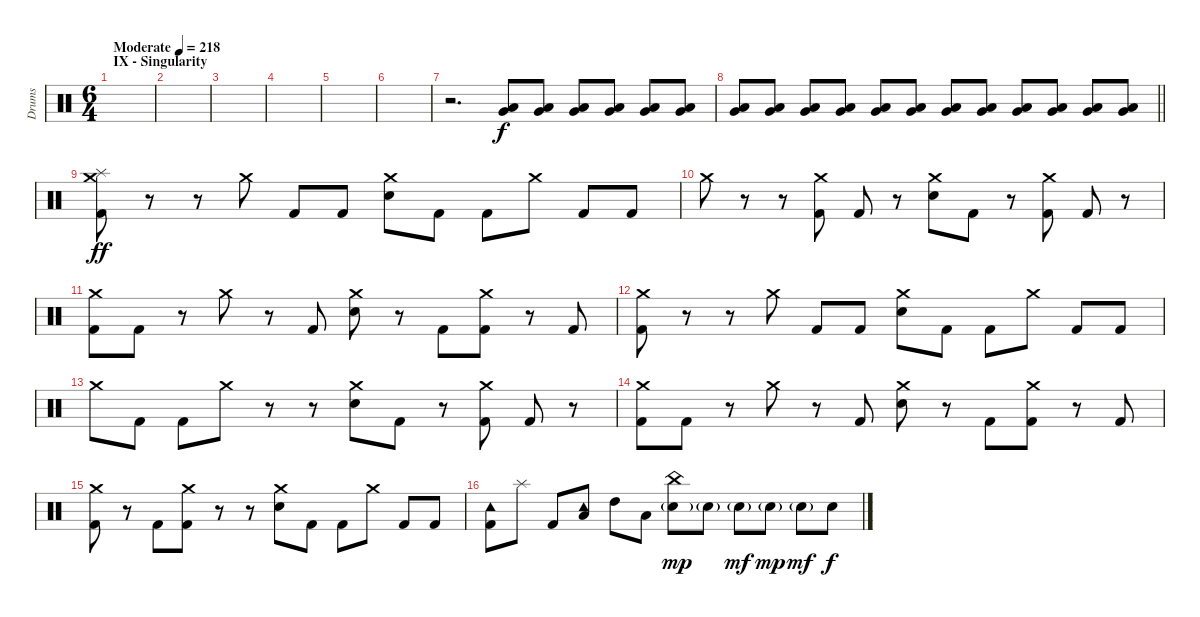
\track ("Drums" "Drums") {instrument percussion}
\staff {score}
\articulation defaults
\ts (6 4)
\section ("" "IX - Singularity")
\tempo (218 "Moderate")
\clef neutral
\ks c
|
|
|
|
|
|
r.2{d} ("Very Low Tom (hit)" "Low Floor Tom (hit)").8{volume 0} ("Very Low Tom (hit)" "Low Floor Tom (hit)").8 ("Very Low Tom (hit)" "Low Floor Tom (hit)").8{volume 11} ("Very Low Tom (hit)" "Low Floor Tom (hit)").8 ("Very Low Tom (hit)" "Low Floor Tom (hit)").8 ("Very Low Tom (hit)" "Low Floor Tom (hit)").8 |
\barLineRight lightlight
("Very Low Tom (hit)" "Low Floor Tom (hit)").8 ("Very Low Tom (hit)" "Low Floor Tom (hit)").8 ("Very Low Tom (hit)" "Low Floor Tom (hit)").8 ("Very Low Tom (hit)" "Low Floor Tom (hit)").8 ("Very Low Tom (hit)" "Low Floor Tom (hit)").8{volume 16} ("Very Low Tom (hit)" "Low Floor Tom (hit)").8 ("Very Low Tom (hit)" "Low Floor Tom (hit)").8 ("Very Low Tom (hit)" "Low Floor Tom (hit)").8 ("Very Low Tom (hit)" "Low Floor Tom (hit)").8 ("Very Low Tom (hit)" "Low Floor Tom (hit)").8 ("Very Low Tom (hit)" "Low Floor Tom (hit)").8 ("Very Low Tom (hit)" "Low Floor Tom (hit)").8 |
\section ("" "")
("Crash medium (hit)" "Splash (hit)" "Kick (hit) 2").8{dy ff} r.8 r.8 "Crash medium (hit)".8 "Kick (hit) 2".8 "Kick (hit) 2".8 ("Crash medium (hit)" "Electric Snare (hit)").8 "Kick (hit) 2".8 "Kick (hit) 2".8 "Crash medium (hit)".8 "Kick (hit) 2".8 "Kick (hit) 2".8 |
"Crash medium (hit)".8 r.8 r.8 ("Crash medium (hit)" "Kick (hit) 2").8 "Kick (hit) 2".8 r.8 ("Crash medium (hit)" "Electric Snare (hit)").8 "Kick (hit) 2".8 r.8 ("Crash medium (hit)" "Kick (hit) 2").8 "Kick (hit) 2".8 r.8 |
("Crash medium (hit)" "Kick (hit) 2").8 "Kick (hit) 2".8 r.8 "Crash medium (hit)".8 r.8 "Kick (hit) 2".8 ("Crash medium (hit)" "Electric Snare (hit)").8 r.8 "Kick (hit) 2".8 ("Crash medium (hit)" "Kick (hit) 2").8 r.8 "Kick (hit) 2".8 |
("Crash medium (hit)" "Kick (hit) 2").8 r.8 r.8 "Crash medium (hit)".8 "Kick (hit) 2".8 "Kick (hit) 2".8 ("Crash medium (hit)" "Electric Snare (hit)").8 "Kick (hit) 2".8 "Kick (hit) 2".8 "Crash medium (hit)".8 "Kick (hit) 2".8 "Kick (hit) 2".8 |
"Crash medium (hit)".8 "Kick (hit) 2".8 "Kick (hit) 2".8 "Crash medium (hit)".8 r.8 r.8 ("Crash medium (hit)" "Electric Snare (hit)").8 "Kick (hit) 2".8 r.8 ("Crash medium (hit)" "Kick (hit) 2").8 "Kick (hit) 2".8 r.8 |
("Crash medium (hit)" "Kick (hit) 2").8 "Kick (hit) 2".8 r.8 "Crash medium (hit)".8 r.8 "Kick (hit) 2".8 ("Crash medium (hit)" "Electric Snare (hit)").8 r.8 "Kick (hit) 2".8 ("Crash medium (hit)" "Kick (hit) 2").8 r.8 "Kick (hit) 2".8 |
("Crash medium (hit)" "Kick (hit) 2").8 r.8 "Kick (hit) 2".8 ("Crash medium (hit)" "Kick (hit) 2").8 r.8 r.8 ("Crash medium (hit)" "Electric Snare (hit)").8 "Kick (hit) 2".8 "Kick (hit) 2".8 "Crash medium (hit)".8 "Kick (hit) 2".8 "Kick (hit) 2".8 |
("Tambourine (hit)" "Kick (hit) 2").8 "Splash (hit)".8 "Kick (hit) 2".8 ("Tambourine (hit)" "Low Tom (hit)").8 "High Tom (hit)".8 "Low Tom (hit)".8 ("China (hit)" "Electric Snare (hit)"{g}).8{dy mp} "Electric Snare (hit)"{g}.8 "Electric Snare (hit)"{g}.8{dy mf} "Electric Snare (hit)"{g}.8{dy mp} "Electric Snare (hit)"{g}.8{dy mf} "Electric Snare (hit)".8{dy f}
